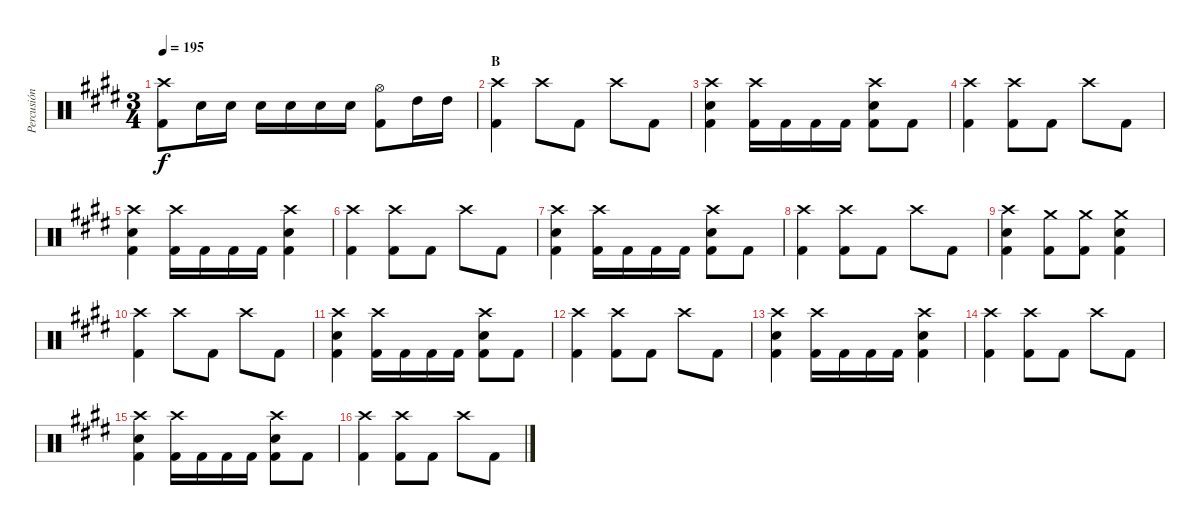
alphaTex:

\track ("Percusión" "Percusión") {instrument percussion}
\staff {score}
\articulation defaults
\ts (3 4)
\tempo 195
\clef neutral
\ks e
("Crash high (hit)" "Kick (hit) 2").8{dy f} "Electric Snare (hit)".16 "Electric Snare (hit)".16 "Electric Snare (hit)".16 "Electric Snare (hit)".16 "Electric Snare (hit)".16 "Electric Snare (hit)".16 ("Hi-Hat (open)" "Kick (hit) 2").8 "High Tom (hit)".16 "High Tom (hit)".16 |
\section ("" "B")
("Crash high (hit)" "Kick (hit) 2").4 "Crash high (hit)".8 "Kick (hit) 2".8 "Crash high (hit)".8 "Kick (hit) 2".8 |
("Crash high (hit)" "Electric Snare (hit)" "Kick (hit) 2").4 ("Crash high (hit)" "Kick (hit) 2").16 "Kick (hit) 2".16 "Kick (hit) 2".16 "Kick (hit) 2".16 ("Crash high (hit)" "Electric Snare (hit)" "Kick (hit) 2").8 "Kick (hit) 2".8 |
("Crash high (hit)" "Kick (hit) 2").4 ("Crash high (hit)" "Kick (hit) 2").8 "Kick (hit) 2".8 "Crash high (hit)".8 "Kick (hit) 2".8 |
("Crash high (hit)" "Electric Snare (hit)" "Kick (hit) 2").4 ("Crash high (hit)" "Kick (hit) 2").16 "Kick (hit) 2".16 "Kick (hit) 2".16 "Kick (hit) 2".16 ("Crash high (hit)" "Electric Snare (hit)" "Kick (hit) 2").4 |
("Crash high (hit)" "Kick (hit) 2").4 ("Crash high (hit)" "Kick (hit) 2").8 "Kick (hit) 2".8 "Crash high (hit)".8 "Kick (hit) 2".8 |
("Crash high (hit)" "Electric Snare (hit)" "Kick (hit) 2").4 ("Crash high (hit)" "Kick (hit) 2").16 "Kick (hit) 2".16 "Kick (hit) 2".16 "Kick (hit) 2".16 ("Crash high (hit)" "Electric Snare (hit)" "Kick (hit) 2").8 "Kick (hit) 2".8 |
("Crash high (hit)" "Kick (hit) 2").4 ("Crash high (hit)" "Kick (hit) 2").8 "Kick (hit) 2".8 "Crash high (hit)".8 "Kick (hit) 2".8 |
("Crash high (hit)" "Electric Snare (hit)" "Kick (hit) 2").4 ("Crash medium (hit)" "Kick (hit) 2").8 ("Crash medium (hit)" "Kick (hit) 2").8 ("Crash medium (hit)" "Electric Snare (hit)" "Kick (hit) 2").4 |
("Crash high (hit)" "Kick (hit) 2").4 "Crash high (hit)".8 "Kick (hit) 2".8 "Crash high (hit)".8 "Kick (hit) 2".8 |
("Crash high (hit)" "Electric Snare (hit)" "Kick (hit) 2").4 ("Crash high (hit)" "Kick (hit) 2").16 "Kick (hit) 2".16 "Kick (hit) 2".16 "Kick (hit) 2".16 ("Crash high (hit)" "Electric Snare (hit)" "Kick (hit) 2").8 "Kick (hit) 2".8 |
("Crash high (hit)" "Kick (hit) 2").4 ("Crash high (hit)" "Kick (hit) 2").8 "Kick (hit) 2".8 "Crash high (hit)".8 "Kick (hit) 2".8 |
("Crash high (hit)" "Electric Snare (hit)" "Kick (hit) 2").4 ("Crash high (hit)" "Kick (hit) 2").16 "Kick (hit) 2".16 "Kick (hit) 2".16 "Kick (hit) 2".16 ("Crash high (hit)" "Electric Snare (hit)" "Kick (hit) 2").4 |
("Crash high (hit)" "Kick (hit) 2").4 ("Crash high (hit)" "Kick (hit) 2").8 "Kick (hit) 2".8 "Crash high (hit)".8 "Kick (hit) 2".8 |
("Crash high (hit)" "Electric Snare (hit)" "Kick (hit) 2").4 ("Crash high (hit)" "Kick (hit) 2").16 "Kick (hit) 2".16 "Kick (hit) 2".16 "Kick (hit) 2".16 ("Crash high (hit)" "Electric Snare (hit)" "Kick (hit) 2").8 "Kick (hit) 2".8 |
("Crash high (hit)" "Kick (hit) 2").4 ("Crash high (hit)" "Kick (hit) 2").8 "Kick (hit) 2".8 "Crash high (hit)".8 "Kick (hit) 2".8
